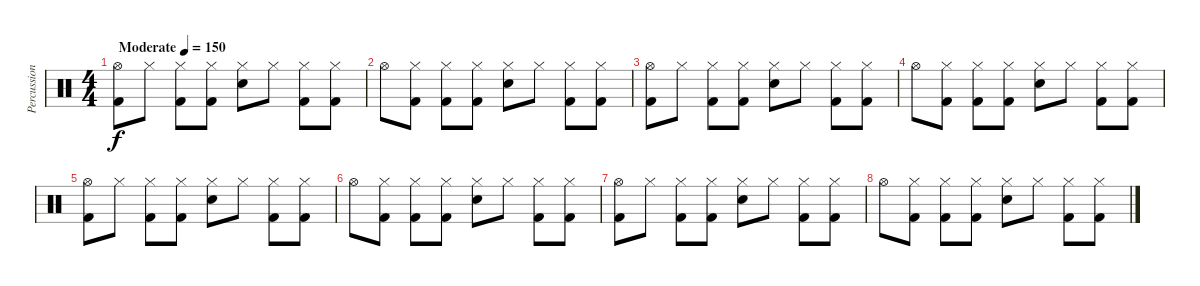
\track ("Percussions" "Percussion") {instrument percussion}
\staff {score}
\articulation defaults
\ts (4 4)
\tempo (150 "Moderate")
\clef neutral
\ks c
("Hi-Hat (open)" "Kick (hit) 2").8{dy f} "Hi-Hat (closed)".8 ("Hi-Hat (closed)" "Kick (hit) 2").8 ("Hi-Hat (closed)" "Kick (hit) 2").8 ("Hi-Hat (closed)" "Snare (hit) 2").8 "Hi-Hat (closed)".8 ("Hi-Hat (closed)" "Kick (hit) 2").8 ("Hi-Hat (closed)" "Kick (hit) 2").8 |
"Hi-Hat (open)".8 ("Hi-Hat (closed)" "Kick (hit) 2").8 ("Hi-Hat (closed)" "Kick (hit) 2").8 ("Hi-Hat (closed)" "Kick (hit) 2").8 ("Hi-Hat (closed)" "Snare (hit) 2").8 "Hi-Hat (closed)".8 ("Hi-Hat (closed)" "Kick (hit) 2").8 ("Hi-Hat (closed)" "Kick (hit) 2").8 |
("Hi-Hat (open)" "Kick (hit) 2").8 "Hi-Hat (closed)".8 ("Hi-Hat (closed)" "Kick (hit) 2").8 ("Hi-Hat (closed)" "Kick (hit) 2").8 ("Hi-Hat (closed)" "Snare (hit) 2").8 "Hi-Hat (closed)".8 ("Hi-Hat (closed)" "Kick (hit) 2").8 ("Hi-Hat (closed)" "Kick (hit) 2").8 |
"Hi-Hat (open)".8 ("Hi-Hat (closed)" "Kick (hit) 2").8 ("Hi-Hat (closed)" "Kick (hit) 2").8 ("Hi-Hat (closed)" "Kick (hit) 2").8 ("Hi-Hat (closed)" "Snare (hit) 2").8 "Hi-Hat (closed)".8 ("Hi-Hat (closed)" "Kick (hit) 2").8 ("Hi-Hat (closed)" "Kick (hit) 2").8 |
("Hi-Hat (open)" "Kick (hit) 2").8 "Hi-Hat (closed)".8 ("Hi-Hat (closed)" "Kick (hit) 2").8 ("Hi-Hat (closed)" "Kick (hit) 2").8 ("Hi-Hat (closed)" "Snare (hit) 2").8 "Hi-Hat (closed)".8 ("Hi-Hat (closed)" "Kick (hit) 2").8 ("Hi-Hat (closed)" "Kick (hit) 2").8 |
"Hi-Hat (open)".8 ("Hi-Hat (closed)" "Kick (hit) 2").8 ("Hi-Hat (closed)" "Kick (hit) 2").8 ("Hi-Hat (closed)" "Kick (hit) 2").8 ("Hi-Hat (closed)" "Snare (hit) 2").8 "Hi-Hat (closed)".8 ("Hi-Hat (closed)" "Kick (hit) 2").8 ("Hi-Hat (closed)" "Kick (hit) 2").8 |
("Hi-Hat (open)" "Kick (hit) 2").8 "Hi-Hat (closed)".8 ("Hi-Hat (closed)" "Kick (hit) 2").8 ("Hi-Hat (closed)" "Kick (hit) 2").8 ("Hi-Hat (closed)" "Snare (hit) 2").8 "Hi-Hat (closed)".8 ("Hi-Hat (closed)" "Kick (hit) 2").8 ("Hi-Hat (closed)" "Kick (hit) 2").8 |
"Hi-Hat (open)".8 ("Hi-Hat (closed)" "Kick (hit) 2").8 ("Hi-Hat (closed)" "Kick (hit) 2").8 ("Hi-Hat (closed)" "Kick (hit) 2").8 ("Hi-Hat (closed)" "Snare (hit) 2").8 "Hi-Hat (closed)".8 ("Hi-Hat (closed)" "Kick (hit) 2").8 ("Hi-Hat (closed)" "Kick (hit) 2").8
